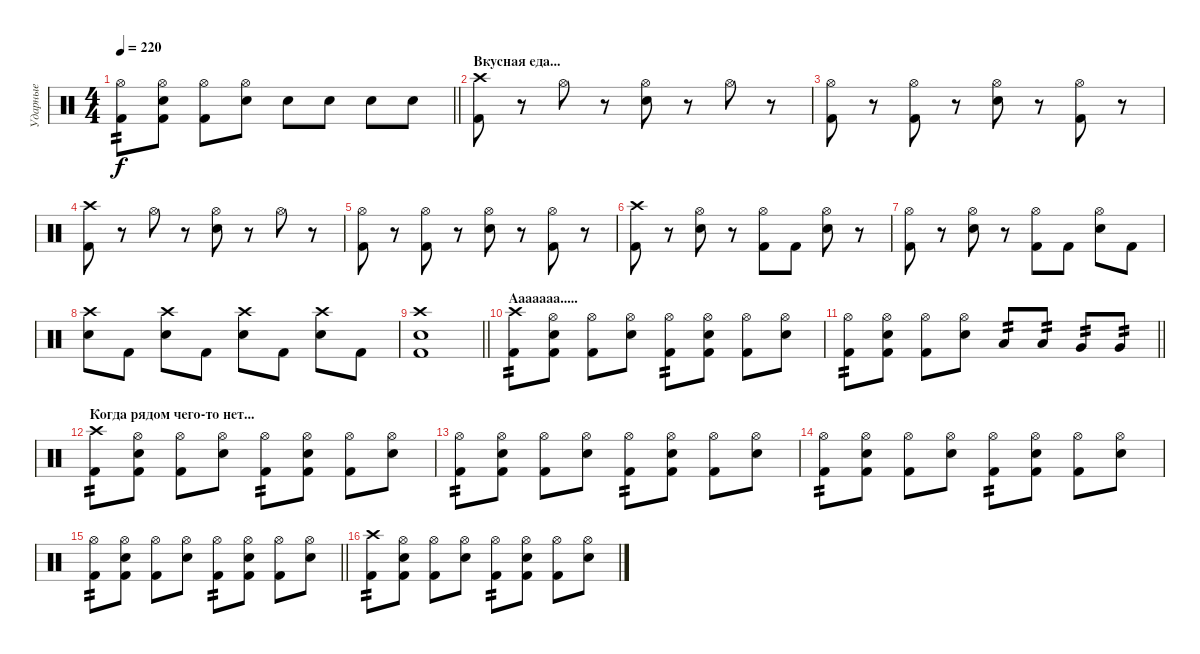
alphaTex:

\track ("Ударные" "Ударные") {instrument percussion}
\staff {score}
\articulation defaults
\ts (4 4)
\tempo 220
\clef neutral
\barLineRight lightlight
\ks c
("Hi-Hat (open)" "Kick (hit) 2").8{tp 2 dy f} ("Hi-Hat (open)" "Electric Snare (hit)" "Kick (hit) 2").8 ("Hi-Hat (open)" "Kick (hit) 2").8 ("Hi-Hat (open)" "Electric Snare (hit)").8 "Electric Snare (hit)".8 "Electric Snare (hit)".8 "Electric Snare (hit)".8 "Electric Snare (hit)".8 |
\section ("" "Вкусная еда...")
("Crash high (hit)" "Kick (hit) 2").8 r.8 "Hi-Hat (open)".8 r.8 ("Hi-Hat (open)" "Electric Snare (hit)").8 r.8 "Hi-Hat (open)".8 r.8 |
("Hi-Hat (open)" "Kick (hit) 2").8 r.8 ("Hi-Hat (open)" "Kick (hit) 2").8 r.8 ("Hi-Hat (open)" "Electric Snare (hit)").8 r.8 ("Hi-Hat (open)" "Kick (hit) 2").8 r.8 |
("Crash high (hit)" "Kick (hit) 2").8 r.8 "Hi-Hat (open)".8 r.8 ("Hi-Hat (open)" "Electric Snare (hit)").8 r.8 "Hi-Hat (open)".8 r.8 |
("Hi-Hat (open)" "Kick (hit) 2").8 r.8 ("Hi-Hat (open)" "Kick (hit) 2").8 r.8 ("Hi-Hat (open)" "Electric Snare (hit)").8 r.8 ("Hi-Hat (open)" "Kick (hit) 2").8 r.8 |
("Crash high (hit)" "Kick (hit) 2").8 r.8 ("Hi-Hat (open)" "Electric Snare (hit)").8 r.8 ("Hi-Hat (open)" "Kick (hit) 2").8 "Kick (hit) 2".8 ("Hi-Hat (open)" "Electric Snare (hit)").8 r.8 |
("Hi-Hat (open)" "Kick (hit) 2").8 r.8 ("Hi-Hat (open)" "Electric Snare (hit)").8 r.8 ("Hi-Hat (open)" "Kick (hit) 2").8 "Kick (hit) 2".8 ("Hi-Hat (open)" "Electric Snare (hit)").8 "Kick (hit) 2".8 |
("Crash high (hit)" "Electric Snare (hit)").8 "Kick (hit) 2".8 ("Crash high (hit)" "Electric Snare (hit)").8 "Kick (hit) 2".8 ("Crash high (hit)" "Electric Snare (hit)").8 "Kick (hit) 2".8 ("Crash high (hit)" "Electric Snare (hit)").8 "Kick (hit) 2".8 |
\barLineRight lightlight
("Crash high (hit)" "Electric Snare (hit)" "Kick (hit) 2").1 |
\section ("" "Ааааааа.....")
("Crash high (hit)" "Kick (hit) 2").8{tp 2} ("Hi-Hat (open)" "Electric Snare (hit)" "Kick (hit) 2").8 ("Hi-Hat (open)" "Kick (hit) 2").8 ("Hi-Hat (open)" "Electric Snare (hit)").8 ("Hi-Hat (open)" "Kick (hit) 2").8{tp 2} ("Hi-Hat (open)" "Electric Snare (hit)" "Kick (hit) 2").8 ("Hi-Hat (open)" "Kick (hit) 2").8 ("Hi-Hat (open)" "Electric Snare (hit)").8 |
\barLineRight lightlight
("Hi-Hat (open)" "Kick (hit) 2").8{tp 2} ("Hi-Hat (open)" "Electric Snare (hit)" "Kick (hit) 2").8 ("Hi-Hat (open)" "Kick (hit) 2").8 ("Hi-Hat (open)" "Electric Snare (hit)").8 "Low Tom (hit)".8{tp 2} "Low Tom (hit)".8{tp 2} "Very Low Tom (hit)".8{tp 2} "Very Low Tom (hit)".8{tp 2} |
\section ("" "Когда рядом чего-то нет...")
("Crash high (hit)" "Kick (hit) 2").8{tp 2} ("Hi-Hat (open)" "Electric Snare (hit)" "Kick (hit) 2").8 ("Hi-Hat (open)" "Kick (hit) 2").8 ("Hi-Hat (open)" "Electric Snare (hit)").8 ("Hi-Hat (open)" "Kick (hit) 2").8{tp 2} ("Hi-Hat (open)" "Electric Snare (hit)" "Kick (hit) 2").8 ("Hi-Hat (open)" "Kick (hit) 2").8 ("Hi-Hat (open)" "Electric Snare (hit)").8 |
("Hi-Hat (open)" "Kick (hit) 2").8{tp 2} ("Hi-Hat (open)" "Electric Snare (hit)" "Kick (hit) 2").8 ("Hi-Hat (open)" "Kick (hit) 2").8 ("Hi-Hat (open)" "Electric Snare (hit)").8 ("Hi-Hat (open)" "Kick (hit) 2").8{tp 2} ("Hi-Hat (open)" "Electric Snare (hit)" "Kick (hit) 2").8 ("Hi-Hat (open)" "Kick (hit) 2").8 ("Hi-Hat (open)" "Electric Snare (hit)").8 |
("Hi-Hat (open)" "Kick (hit) 2").8{tp 2} ("Hi-Hat (open)" "Electric Snare (hit)" "Kick (hit) 2").8 ("Hi-Hat (open)" "Kick (hit) 2").8 ("Hi-Hat (open)" "Electric Snare (hit)").8 ("Hi-Hat (open)" "Kick (hit) 2").8{tp 2} ("Hi-Hat (open)" "Electric Snare (hit)" "Kick (hit) 2").8 ("Hi-Hat (open)" "Kick (hit) 2").8 ("Hi-Hat (open)" "Electric Snare (hit)").8 |
\barLineRight lightlight
("Hi-Hat (open)" "Kick (hit) 2").8{tp 2} ("Hi-Hat (open)" "Electric Snare (hit)" "Kick (hit) 2").8 ("Hi-Hat (open)" "Kick (hit) 2").8 ("Hi-Hat (open)" "Electric Snare (hit)").8 ("Hi-Hat (open)" "Kick (hit) 2").8{tp 2} ("Hi-Hat (open)" "Electric Snare (hit)" "Kick (hit) 2").8 ("Hi-Hat (open)" "Kick (hit) 2").8 ("Hi-Hat (open)" "Electric Snare (hit)").8 |
("Crash high (hit)" "Kick (hit) 2").8{tp 2} ("Hi-Hat (open)" "Electric Snare (hit)" "Kick (hit) 2").8 ("Hi-Hat (open)" "Kick (hit) 2").8 ("Hi-Hat (open)" "Electric Snare (hit)").8 ("Hi-Hat (open)" "Kick (hit) 2").8{tp 2} ("Hi-Hat (open)" "Electric Snare (hit)" "Kick (hit) 2").8 ("Hi-Hat (open)" "Kick (hit) 2").8 ("Hi-Hat (open)" "Electric Snare (hit)").8
